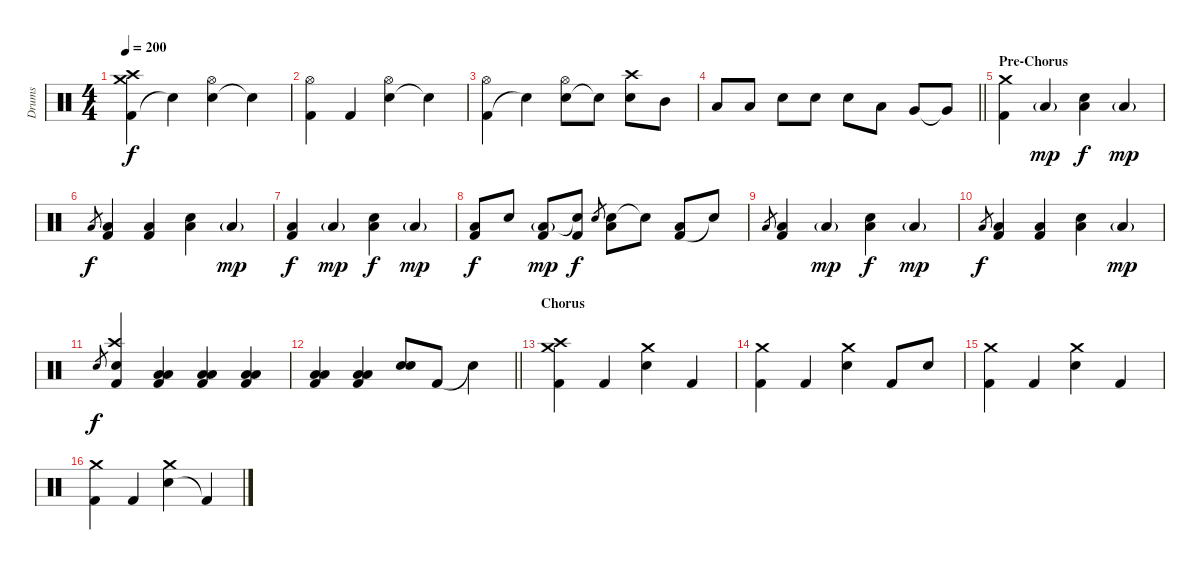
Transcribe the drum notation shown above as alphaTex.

\track ("Drums" "Drums") {instrument percussion}
\staff {score}
\articulation defaults
\ts (4 4)
\tempo 200
\clef neutral
\ks c
("Kick (hit) 2" "Crash medium (hit)" "Crash high (hit)").4{dy f} "Electric Snare (hit)"{t}.4 ("Electric Snare (hit)" "Hi-Hat (open)").4 "Snare (hit)"{t}.4 |
("Kick (hit) 2" "Hi-Hat (open)").4 "Kick (hit) 2".4 ("Electric Snare (hit)" "Hi-Hat (open)").4 "Snare (hit)"{t}.4 |
("Kick (hit) 2" "Hi-Hat (open)").4 "Electric Snare (hit)"{t}.4 ("Electric Snare (hit)" "Hi-Hat (open)").8 "Electric Snare (hit)"{t}.8 ("Electric Snare (hit)" "Crash high (hit)").8 "Mid Tom (hit)".8 |
\barLineRight lightlight "Low Tom (hit)".8 "Low Tom (hit)".8 "Electric Snare (hit)".8 "Electric Snare (hit)".8 "Electric Snare (hit)".8 "Low Tom (hit)".8 "Very Low Tom (hit)".8 "Very Low Tom (hit)"{t}.8
|
\section ("" "Pre-Chorus")
("Crash medium (hit)" "Kick (hit) 2").4 "Low Floor Tom (hit)"{g}.4{dy mp} ("Low Floor Tom (hit)" "Electric Snare (hit)").4{dy f} "Low Floor Tom (hit)"{g}.4{dy mp} |
"Low Floor Tom (hit)".8{gr dy f} ("Low Floor Tom (hit)" "Kick (hit) 2").4 ("Low Floor Tom (hit)" "Kick (hit) 2").4 ("Low Floor Tom (hit)" "Electric Snare (hit)").4 "Low Floor Tom (hit)"{g}.4{dy mp} |
("Low Floor Tom (hit)" "Kick (hit) 2").4{dy f} "Low Floor Tom (hit)"{g}.4{dy mp} ("Low Floor Tom (hit)" "Electric Snare (hit)").4{dy f} "Low Floor Tom (hit)"{g}.4{dy mp} |
("Low Floor Tom (hit)" "Kick (hit) 2").8{dy f} "Electric Snare (hit)".8 ("Low Floor Tom (hit)"{g} "Kick (hit) 2").8{dy mp} ("Electric Snare (hit)"{t} "Kick (hit) 2").8{dy f} "Electric Snare (hit)".8{gr} ("Electric Snare (hit)" "Low Floor Tom (hit)").8 "Snare (hit)"{t}.8 ("Kick (hit) 2" "Low Floor Tom (hit)").8 "Snare (hit)"{t}.8 |
"Low Floor Tom (hit)".8{gr} ("Low Floor Tom (hit)" "Kick (hit) 2").4 "Low Floor Tom (hit)"{g}.4{dy mp} ("Low Floor Tom (hit)" "Electric Snare (hit)").4{dy f} "Low Floor Tom (hit)"{g}.4{dy mp} |
"Low Floor Tom (hit)".8{gr dy f} ("Low Floor Tom (hit)" "Kick (hit) 2").4 ("Low Floor Tom (hit)" "Kick (hit) 2").4 ("Low Floor Tom (hit)" "Electric Snare (hit)").4 "Low Floor Tom (hit)"{g}.4{dy mp} |
"Electric Snare (hit)".8{gr dy f} ("Electric Snare (hit)" "Crash high (hit)" "Kick (hit) 2").4 ("Kick (hit) 2" "Low Tom (hit)" "Low Floor Tom (hit)").4 ("Kick (hit) 2" "Low Tom (hit)" "Low Floor Tom (hit)").4 ("Kick (hit) 2" "Low Tom (hit)" "Low Floor Tom (hit)").4 |
\barLineRight lightlight
("Kick (hit) 2" "Low Tom (hit)" "Low Floor Tom (hit)").4 ("Kick (hit) 2" "Low Tom (hit)" "Low Floor Tom (hit)").4 ("Electric Snare (hit)" "Electric Snare (hit)").8 "Kick (hit) 2".8 "Snare (hit)"{t}.4 |
\section ("" "Chorus")
("Kick (hit) 2" "Crash medium (hit)" "Crash high (hit)").4 "Kick (hit) 2".4 ("Electric Snare (hit)" "Crash medium (hit)").4 "Kick (hit) 2".4 |
("Kick (hit) 2" "Crash medium (hit)").4 "Kick (hit) 2".4 ("Electric Snare (hit)" "Crash medium (hit)").4 "Kick (hit) 2".8 "Electric Snare (hit)".8 |
("Kick (hit) 2" "Crash medium (hit)").4 "Kick (hit) 2".4 ("Electric Snare (hit)" "Crash medium (hit)").4 "Kick (hit) 2".4 |
("Kick (hit) 2" "Crash medium (hit)").4 "Kick (hit) 2".4 ("Electric Snare (hit)" "Crash medium (hit)").4 "Kick (hit) 2"{t}.4
